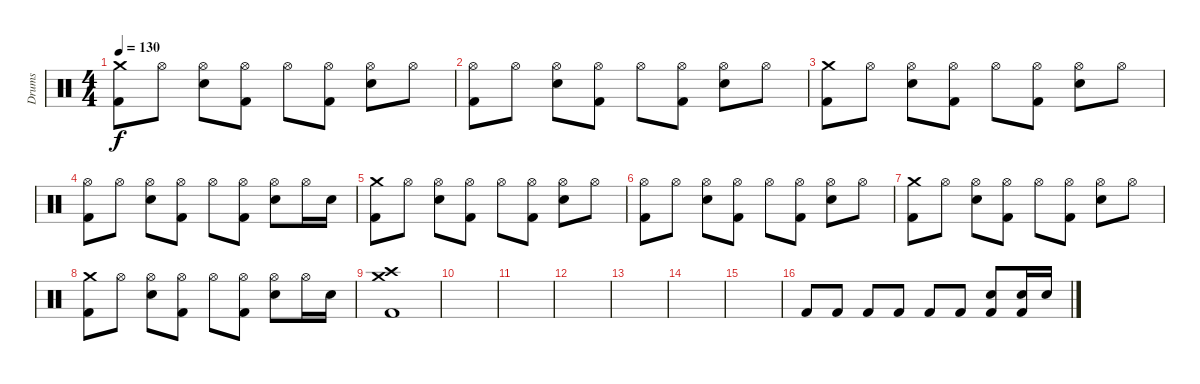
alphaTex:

\track ("Drums" "Drums") {instrument percussion}
\staff {score}
\articulation defaults
\ts (4 4)
\tempo 130
\clef neutral
\ks c
("Crash medium (hit)" "Kick (hit) 2").8{dy f} "Hi-Hat (open)".8 ("Hi-Hat (open)" "Electric Snare (hit)").8 ("Hi-Hat (open)" "Kick (hit) 2").8 "Hi-Hat (open)".8 ("Hi-Hat (open)" "Kick (hit) 2").8 ("Hi-Hat (open)" "Electric Snare (hit)").8 "Hi-Hat (open)".8 |
("Hi-Hat (open)" "Kick (hit) 2").8 "Hi-Hat (open)".8 ("Hi-Hat (open)" "Electric Snare (hit)").8 ("Hi-Hat (open)" "Kick (hit) 2").8 "Hi-Hat (open)".8 ("Hi-Hat (open)" "Kick (hit) 2").8 ("Hi-Hat (open)" "Electric Snare (hit)").8 "Hi-Hat (open)".8 |
("Crash medium (hit)" "Kick (hit) 2").8 "Hi-Hat (open)".8 ("Hi-Hat (open)" "Electric Snare (hit)").8 ("Hi-Hat (open)" "Kick (hit) 2").8 "Hi-Hat (open)".8 ("Hi-Hat (open)" "Kick (hit) 2").8 ("Hi-Hat (open)" "Electric Snare (hit)").8 "Hi-Hat (open)".8 |
("Hi-Hat (open)" "Kick (hit) 2").8 "Hi-Hat (open)".8 ("Hi-Hat (open)" "Electric Snare (hit)").8 ("Hi-Hat (open)" "Kick (hit) 2").8 "Hi-Hat (open)".8 ("Hi-Hat (open)" "Kick (hit) 2").8 ("Hi-Hat (open)" "Electric Snare (hit)").8 "Hi-Hat (open)".16 "Electric Snare (hit)".16 |
("Crash medium (hit)" "Kick (hit) 2").8 "Hi-Hat (open)".8 ("Hi-Hat (open)" "Electric Snare (hit)").8 ("Hi-Hat (open)" "Kick (hit) 2").8 "Hi-Hat (open)".8 ("Hi-Hat (open)" "Kick (hit) 2").8 ("Hi-Hat (open)" "Electric Snare (hit)").8 "Hi-Hat (open)".8 |
("Hi-Hat (open)" "Kick (hit) 2").8 "Hi-Hat (open)".8 ("Hi-Hat (open)" "Electric Snare (hit)").8 ("Hi-Hat (open)" "Kick (hit) 2").8 "Hi-Hat (open)".8 ("Hi-Hat (open)" "Kick (hit) 2").8 ("Hi-Hat (open)" "Electric Snare (hit)").8 "Hi-Hat (open)".8 |
("Crash medium (hit)" "Kick (hit) 2").8 "Hi-Hat (open)".8 ("Hi-Hat (open)" "Electric Snare (hit)").8 ("Hi-Hat (open)" "Kick (hit) 2").8 "Hi-Hat (open)".8 ("Hi-Hat (open)" "Kick (hit) 2").8 ("Hi-Hat (open)" "Electric Snare (hit)").8 "Hi-Hat (open)".8 |
("Crash medium (hit)" "Kick (hit) 2").8 "Hi-Hat (open)".8 ("Hi-Hat (open)" "Electric Snare (hit)").8 ("Hi-Hat (open)" "Kick (hit) 2").8 "Hi-Hat (open)".8 ("Hi-Hat (open)" "Kick (hit) 2").8 ("Hi-Hat (open)" "Electric Snare (hit)").8 "Hi-Hat (open)".16 "Electric Snare (hit)".16 |
("Crash medium (hit)" "Crash high (hit)" "Kick (hit) 2").1 |
|
|
|
|
|
|
"Kick (hit) 2".8 "Kick (hit) 2".8 "Kick (hit) 2".8 "Kick (hit) 2".8 "Kick (hit) 2".8 "Kick (hit) 2".8 ("Electric Snare (hit)" "Kick (hit) 2").8 ("Electric Snare (hit)" "Kick (hit) 2").16 "Electric Snare (hit)".16
